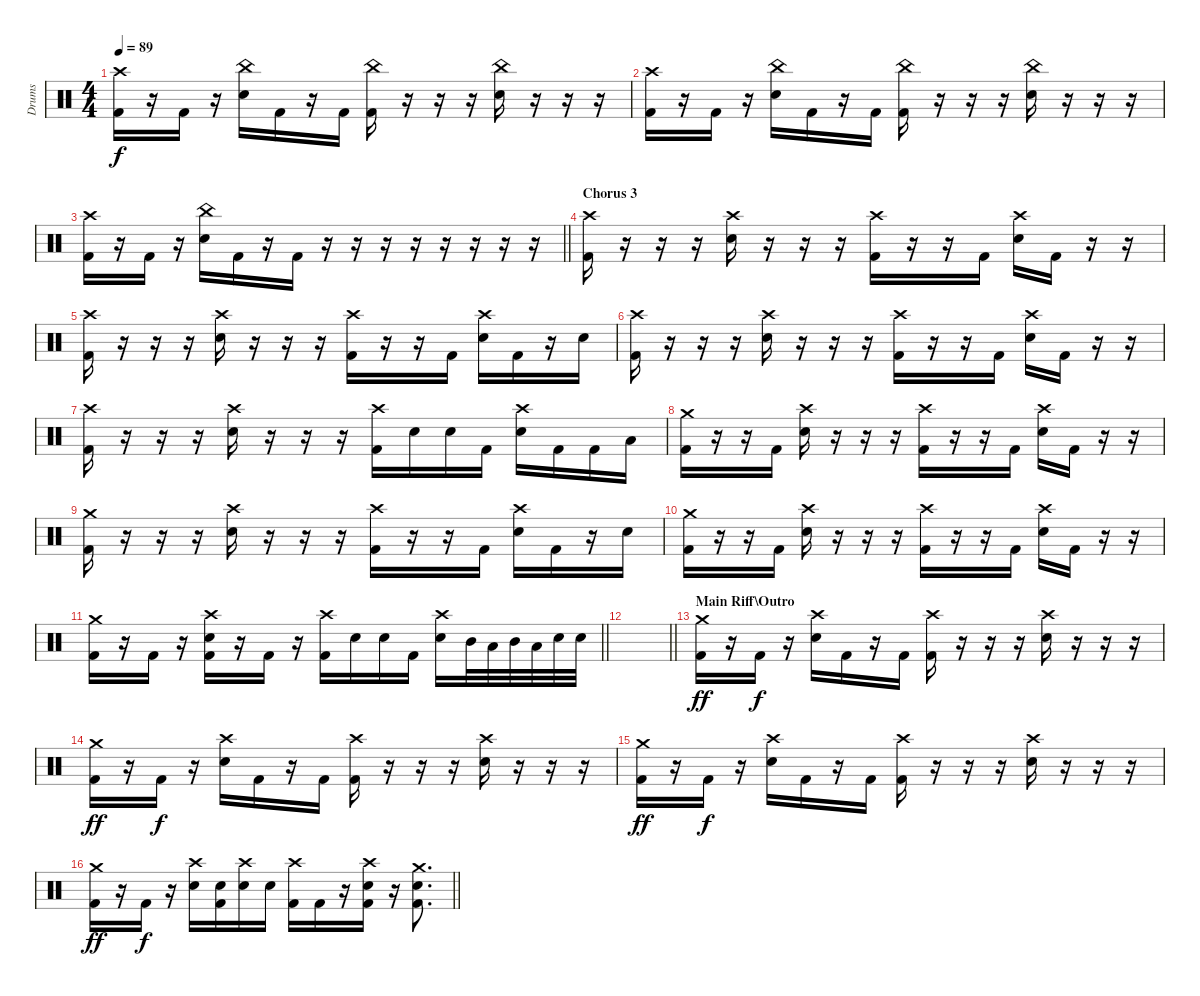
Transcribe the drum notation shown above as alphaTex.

\track ("Drums" "Drums") {instrument percussion}
\staff {score}
\articulation defaults
\ts (4 4)
\tempo 89
\clef neutral
\ks c
("Crash high (hit)" "Kick (hit) 2").16{dy f} r.16 "Kick (hit) 2".16 r.16 ("China (hit)" "Electric Snare (hit)").16 "Kick (hit) 2".16 r.16 "Kick (hit) 2".16 ("China (hit)" "Kick (hit) 2").16 r.16 r.16 r.16 ("China (hit)" "Electric Snare (hit)").16 r.16 r.16 r.16 |
("Crash high (hit)" "Kick (hit) 2").16 r.16 "Kick (hit) 2".16 r.16 ("China (hit)" "Electric Snare (hit)").16 "Kick (hit) 2".16 r.16 "Kick (hit) 2".16 ("China (hit)" "Kick (hit) 2").16 r.16 r.16 r.16 ("China (hit)" "Electric Snare (hit)").16 r.16 r.16 r.16 |
\barLineRight lightlight
("Crash high (hit)" "Kick (hit) 2").16 r.16 "Kick (hit) 2".16 r.16 ("China (hit)" "Electric Snare (hit)").16 "Kick (hit) 2".16 r.16 "Kick (hit) 2".16 r.16 r.16 r.16 r.16 r.16 r.16 r.16 r.16 |
\section ("" "Chorus 3")
("Crash high (hit)" "Kick (hit) 2").16 r.16 r.16 r.16 ("Crash high (hit)" "Electric Snare (hit)").16 r.16 r.16 r.16 ("Crash high (hit)" "Kick (hit) 2").16 r.16 r.16 "Kick (hit) 2".16 ("Crash high (hit)" "Electric Snare (hit)").16 "Kick (hit) 2".16 r.16 r.16 |
("Crash high (hit)" "Kick (hit) 2").16 r.16 r.16 r.16 ("Crash high (hit)" "Electric Snare (hit)").16 r.16 r.16 r.16 ("Crash high (hit)" "Kick (hit) 2").16 r.16 r.16 "Kick (hit) 2".16 ("Crash high (hit)" "Electric Snare (hit)").16 "Kick (hit) 2".16 r.16 "Electric Snare (hit)".16 |
("Crash high (hit)" "Kick (hit) 2").16 r.16 r.16 r.16 ("Crash high (hit)" "Electric Snare (hit)").16 r.16 r.16 r.16 ("Crash high (hit)" "Kick (hit) 2").16 r.16 r.16 "Kick (hit) 2".16 ("Crash high (hit)" "Electric Snare (hit)").16 "Kick (hit) 2".16 r.16 r.16 |
("Crash high (hit)" "Kick (hit) 2").16 r.16 r.16 r.16 ("Crash high (hit)" "Electric Snare (hit)").16 r.16 r.16 r.16 ("Crash high (hit)" "Kick (hit) 2").16 "Electric Snare (hit)".16 "Electric Snare (hit)".16 "Kick (hit) 2".16 ("Crash high (hit)" "Electric Snare (hit)").16 "Kick (hit) 2".16 "Kick (hit) 2".16 "Low Tom (hit)".16 |
("Crash medium (hit)" "Kick (hit) 2").16 r.16 r.16 "Kick (hit) 2".16 ("Crash high (hit)" "Electric Snare (hit)").16 r.16 r.16 r.16 ("Crash high (hit)" "Kick (hit) 2").16 r.16 r.16 "Kick (hit) 2".16 ("Crash high (hit)" "Electric Snare (hit)").16 "Kick (hit) 2".16 r.16 r.16 |
("Crash medium (hit)" "Kick (hit) 2").16 r.16 r.16 r.16 ("Crash high (hit)" "Electric Snare (hit)").16 r.16 r.16 r.16 ("Crash high (hit)" "Kick (hit) 2").16 r.16 r.16 "Kick (hit) 2".16 ("Crash high (hit)" "Electric Snare (hit)").16 "Kick (hit) 2".16 r.16 "Electric Snare (hit)".16 |
("Crash medium (hit)" "Kick (hit) 2").16 r.16 r.16 "Kick (hit) 2".16 ("Crash high (hit)" "Electric Snare (hit)").16 r.16 r.16 r.16 ("Crash high (hit)" "Kick (hit) 2").16 r.16 r.16 "Kick (hit) 2".16 ("Crash high (hit)" "Electric Snare (hit)").16 "Kick (hit) 2".16 r.16 r.16 |
\barLineRight lightlight
("Crash medium (hit)" "Kick (hit) 2").16 r.16 "Kick (hit) 2".16 r.16 ("Crash high (hit)" "Electric Snare (hit)" "Kick (hit) 2").16 r.16 "Kick (hit) 2".16 r.16 ("Crash high (hit)" "Kick (hit) 2").16 "Electric Snare (hit)".16 "Electric Snare (hit)".16 "Kick (hit) 2".16 ("Crash high (hit)" "Electric Snare (hit)").16 "Mid Tom (hit)".32 "Low Tom (hit)".32 "Mid Tom (hit)".32 "Low Tom (hit)".32 "Electric Snare (hit)".32 "Electric Snare (hit)".32 |
\barLineRight lightlight
|
\section ("" "Main Riff\\Outro")
("Crash medium (hit)" "Kick (hit) 2").16{dy ff} r.16 "Kick (hit) 2".16{dy f} r.16 ("Crash high (hit)" "Electric Snare (hit)").16 "Kick (hit) 2".16 r.16 "Kick (hit) 2".16 ("Crash high (hit)" "Kick (hit) 2").16 r.16 r.16 r.16 ("Crash high (hit)" "Electric Snare (hit)").16 r.16 r.16 r.16 |
("Crash medium (hit)" "Kick (hit) 2").16{dy ff} r.16 "Kick (hit) 2".16{dy f} r.16 ("Crash high (hit)" "Electric Snare (hit)").16 "Kick (hit) 2".16 r.16 "Kick (hit) 2".16 ("Crash high (hit)" "Kick (hit) 2").16 r.16 r.16 r.16 ("Crash high (hit)" "Electric Snare (hit)").16 r.16 r.16 r.16 |
("Crash medium (hit)" "Kick (hit) 2").16{dy ff} r.16 "Kick (hit) 2".16{dy f} r.16 ("Crash high (hit)" "Electric Snare (hit)").16 "Kick (hit) 2".16 r.16 "Kick (hit) 2".16 ("Crash high (hit)" "Kick (hit) 2").16 r.16 r.16 r.16 ("Crash high (hit)" "Electric Snare (hit)").16 r.16 r.16 r.16 |
\barLineRight lightlight
("Crash medium (hit)" "Kick (hit) 2").16{dy ff} r.16 "Kick (hit) 2".16{dy f} r.16 ("Crash high (hit)" "Electric Snare (hit)").16 ("Electric Snare (hit)" "Kick (hit) 2").16 ("Crash high (hit)" "Electric Snare (hit)").16 "Electric Snare (hit)".16 ("Crash high (hit)" "Kick (hit) 2").16 "Kick (hit) 2".16 r.16 ("Crash high (hit)" "Electric Snare (hit)" "Kick (hit) 2").16 r.16 ("Crash medium (hit)" "Electric Snare (hit)" "Kick (hit) 2").8{d}
